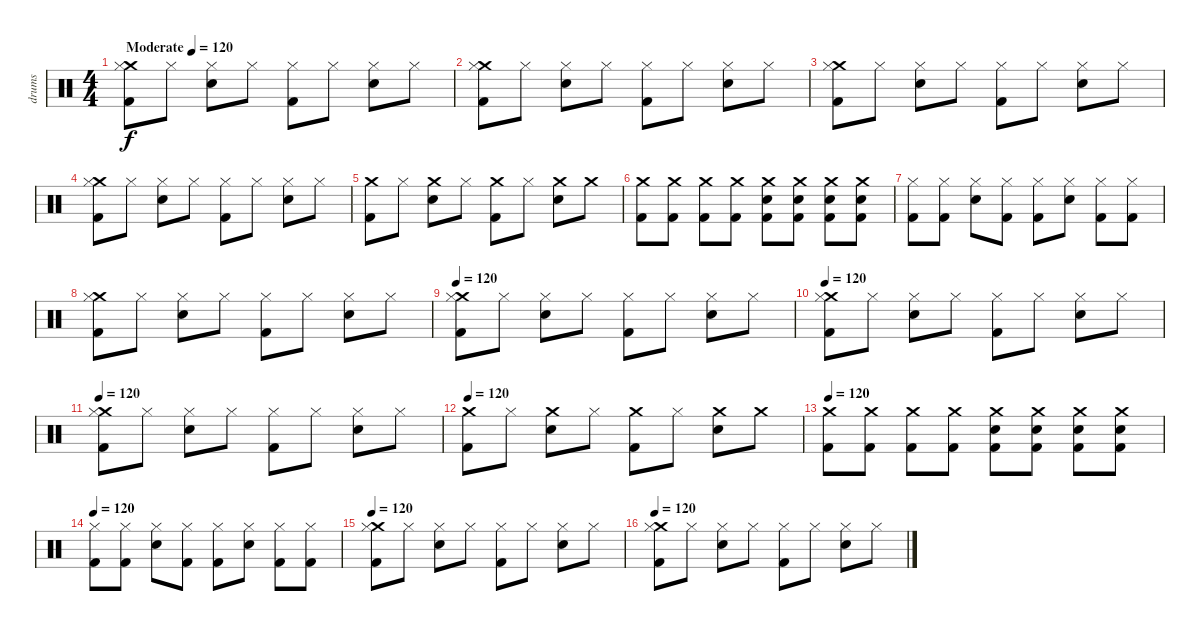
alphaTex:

\track ("drums" "drums") {instrument percussion}
\staff {score}
\articulation defaults
\ts (4 4)
\tempo (120 "Moderate")
\clef neutral
\ks c
("Crash medium (hit)" "Hi-Hat (closed)" "Kick (hit) 2").8{dy f} "Hi-Hat (closed)".8 ("Hi-Hat (closed)" "Snare (hit) 2").8 "Hi-Hat (closed)".8 ("Hi-Hat (closed)" "Kick (hit) 2").8 "Hi-Hat (closed)".8 ("Hi-Hat (closed)" "Snare (hit) 2").8 "Hi-Hat (closed)".8 |
("Crash medium (hit)" "Hi-Hat (closed)" "Kick (hit) 2").8 "Hi-Hat (closed)".8 ("Hi-Hat (closed)" "Snare (hit) 2").8 "Hi-Hat (closed)".8 ("Hi-Hat (closed)" "Kick (hit) 2").8 "Hi-Hat (closed)".8 ("Hi-Hat (closed)" "Snare (hit) 2").8 "Hi-Hat (closed)".8 |
("Crash medium (hit)" "Hi-Hat (closed)" "Kick (hit) 2").8 "Hi-Hat (closed)".8 ("Hi-Hat (closed)" "Snare (hit) 2").8 "Hi-Hat (closed)".8 ("Hi-Hat (closed)" "Kick (hit) 2").8 "Hi-Hat (closed)".8 ("Hi-Hat (closed)" "Snare (hit) 2").8 "Hi-Hat (closed)".8 |
("Crash medium (hit)" "Hi-Hat (closed)" "Kick (hit) 2").8 "Hi-Hat (closed)".8 ("Hi-Hat (closed)" "Snare (hit) 2").8 "Hi-Hat (closed)".8 ("Hi-Hat (closed)" "Kick (hit) 2").8 "Hi-Hat (closed)".8 ("Hi-Hat (closed)" "Snare (hit) 2").8 "Hi-Hat (closed)".8 |
("Crash medium (hit)" "Kick (hit) 2").8 "Hi-Hat (closed)".8 ("Crash medium (hit)" "Snare (hit) 2").8 "Hi-Hat (closed)".8 ("Crash medium (hit)" "Kick (hit) 2").8 "Hi-Hat (closed)".8 ("Crash medium (hit)" "Snare (hit) 2").8 "Crash medium (hit)".8 |
("Crash medium (hit)" "Kick (hit) 2").8 ("Crash medium (hit)" "Kick (hit) 2").8 ("Crash medium (hit)" "Kick (hit) 2").8 ("Crash medium (hit)" "Kick (hit) 2").8 ("Crash medium (hit)" "Snare (hit) 2" "Kick (hit) 2").8 ("Crash medium (hit)" "Snare (hit) 2" "Kick (hit) 2").8 ("Crash medium (hit)" "Snare (hit) 2" "Kick (hit) 2").8 ("Crash medium (hit)" "Snare (hit) 2" "Kick (hit) 2").8 |
("Hi-Hat (closed)" "Kick (hit) 2").8 ("Hi-Hat (closed)" "Kick (hit) 2").8 ("Hi-Hat (closed)" "Snare (hit) 2").8 ("Hi-Hat (closed)" "Kick (hit) 2").8 ("Hi-Hat (closed)" "Kick (hit) 2").8 ("Hi-Hat (closed)" "Snare (hit) 2").8 ("Hi-Hat (closed)" "Kick (hit) 2").8 ("Hi-Hat (closed)" "Kick (hit) 2").8 |
("Crash medium (hit)" "Hi-Hat (closed)" "Kick (hit) 2").8 "Hi-Hat (closed)".8 ("Hi-Hat (closed)" "Snare (hit) 2").8 "Hi-Hat (closed)".8 ("Hi-Hat (closed)" "Kick (hit) 2").8 "Hi-Hat (closed)".8 ("Hi-Hat (closed)" "Snare (hit) 2").8 "Hi-Hat (closed)".8 |
\tempo 150
\tempo 120
("Crash medium (hit)" "Hi-Hat (closed)" "Kick (hit) 2").8 "Hi-Hat (closed)".8 ("Hi-Hat (closed)" "Snare (hit) 2").8 "Hi-Hat (closed)".8 ("Hi-Hat (closed)" "Kick (hit) 2").8 "Hi-Hat (closed)".8 ("Hi-Hat (closed)" "Snare (hit) 2").8 "Hi-Hat (closed)".8 |
\tempo 200
\tempo 120
("Crash medium (hit)" "Hi-Hat (closed)" "Kick (hit) 2").8 "Hi-Hat (closed)".8 ("Hi-Hat (closed)" "Snare (hit) 2").8 "Hi-Hat (closed)".8 ("Hi-Hat (closed)" "Kick (hit) 2").8 "Hi-Hat (closed)".8 ("Hi-Hat (closed)" "Snare (hit) 2").8 "Hi-Hat (closed)".8 |
\tempo 200
\tempo 120
("Crash medium (hit)" "Hi-Hat (closed)" "Kick (hit) 2").8 "Hi-Hat (closed)".8 ("Hi-Hat (closed)" "Snare (hit) 2").8 "Hi-Hat (closed)".8 ("Hi-Hat (closed)" "Kick (hit) 2").8 "Hi-Hat (closed)".8 ("Hi-Hat (closed)" "Snare (hit) 2").8 "Hi-Hat (closed)".8 |
\tempo 200
\tempo 120
("Crash medium (hit)" "Kick (hit) 2").8 "Hi-Hat (closed)".8 ("Crash medium (hit)" "Snare (hit) 2").8 "Hi-Hat (closed)".8 ("Crash medium (hit)" "Kick (hit) 2").8 "Hi-Hat (closed)".8 ("Crash medium (hit)" "Snare (hit) 2").8 "Crash medium (hit)".8 |
\tempo 120
("Crash medium (hit)" "Kick (hit) 2").8 ("Crash medium (hit)" "Kick (hit) 2").8 ("Crash medium (hit)" "Kick (hit) 2").8 ("Crash medium (hit)" "Kick (hit) 2").8 ("Crash medium (hit)" "Snare (hit) 2" "Kick (hit) 2").8 ("Crash medium (hit)" "Snare (hit) 2" "Kick (hit) 2").8 ("Crash medium (hit)" "Snare (hit) 2" "Kick (hit) 2").8 ("Crash medium (hit)" "Snare (hit) 2" "Kick (hit) 2").8 |
\tempo 120
("Hi-Hat (closed)" "Kick (hit) 2").8 ("Hi-Hat (closed)" "Kick (hit) 2").8 ("Hi-Hat (closed)" "Snare (hit) 2").8 ("Hi-Hat (closed)" "Kick (hit) 2").8 ("Hi-Hat (closed)" "Kick (hit) 2").8 ("Hi-Hat (closed)" "Snare (hit) 2").8 ("Hi-Hat (closed)" "Kick (hit) 2").8 ("Hi-Hat (closed)" "Kick (hit) 2").8 |
\tempo 120
("Crash medium (hit)" "Hi-Hat (closed)" "Kick (hit) 2").8 "Hi-Hat (closed)".8 ("Hi-Hat (closed)" "Snare (hit) 2").8 "Hi-Hat (closed)".8 ("Hi-Hat (closed)" "Kick (hit) 2").8 "Hi-Hat (closed)".8 ("Hi-Hat (closed)" "Snare (hit) 2").8 "Hi-Hat (closed)".8 |
\tempo 120
("Crash medium (hit)" "Hi-Hat (closed)" "Kick (hit) 2").8 "Hi-Hat (closed)".8 ("Hi-Hat (closed)" "Snare (hit) 2").8 "Hi-Hat (closed)".8 ("Hi-Hat (closed)" "Kick (hit) 2").8 "Hi-Hat (closed)".8 ("Hi-Hat (closed)" "Snare (hit) 2").8 "Hi-Hat (closed)".8
